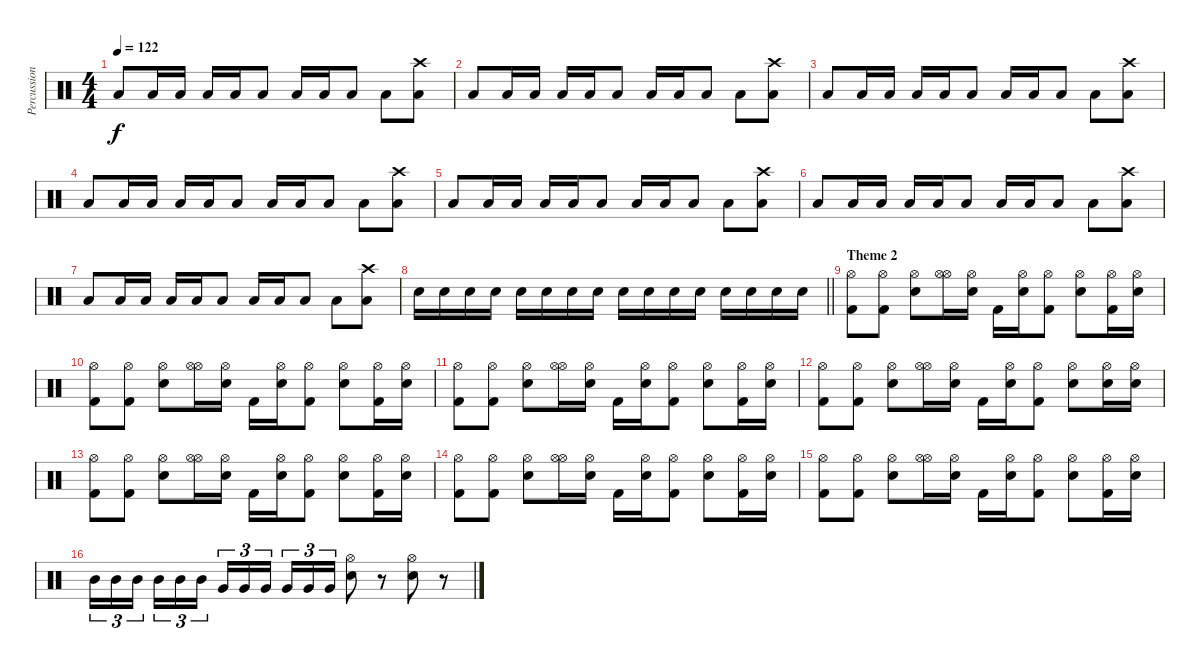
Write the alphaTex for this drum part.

\track ("Percussion" "Percussion") {instrument percussion}
\staff {score}
\articulation defaults
\ts (4 4)
\tempo 122
\clef neutral
\ks c "Low Tom (hit)".8{dy f} "Low Tom (hit)".16 "Low Tom (hit)".16 "Low Tom (hit)".16 "Low Tom (hit)".16 "Low Tom (hit)".8 "Low Tom (hit)".16 "Low Tom (hit)".16 "Low Tom (hit)".8 "Low Tom (hit)".8
("Low Tom (hit)" "Crash high (hit)").8 |
"Low Tom (hit)".8 "Low Tom (hit)".16 "Low Tom (hit)".16 "Low Tom (hit)".16 "Low Tom (hit)".16 "Low Tom (hit)".8 "Low Tom (hit)".16 "Low Tom (hit)".16 "Low Tom (hit)".8 "Low Tom (hit)".8 ("Low Tom (hit)" "Crash high (hit)").8 |
"Low Tom (hit)".8 "Low Tom (hit)".16 "Low Tom (hit)".16 "Low Tom (hit)".16 "Low Tom (hit)".16 "Low Tom (hit)".8 "Low Tom (hit)".16 "Low Tom (hit)".16 "Low Tom (hit)".8 "Low Tom (hit)".8 ("Low Tom (hit)" "Crash high (hit)").8 |
"Low Tom (hit)".8 "Low Tom (hit)".16 "Low Tom (hit)".16 "Low Tom (hit)".16 "Low Tom (hit)".16 "Low Tom (hit)".8 "Low Tom (hit)".16 "Low Tom (hit)".16 "Low Tom (hit)".8 "Low Tom (hit)".8 ("Low Tom (hit)" "Crash high (hit)").8 |
"Low Tom (hit)".8 "Low Tom (hit)".16 "Low Tom (hit)".16 "Low Tom (hit)".16 "Low Tom (hit)".16 "Low Tom (hit)".8 "Low Tom (hit)".16 "Low Tom (hit)".16 "Low Tom (hit)".8 "Low Tom (hit)".8 ("Low Tom (hit)" "Crash high (hit)").8 |
"Low Tom (hit)".8 "Low Tom (hit)".16 "Low Tom (hit)".16 "Low Tom (hit)".16 "Low Tom (hit)".16 "Low Tom (hit)".8 "Low Tom (hit)".16 "Low Tom (hit)".16 "Low Tom (hit)".8 "Low Tom (hit)".8 ("Low Tom (hit)" "Crash high (hit)").8 |
"Low Tom (hit)".8 "Low Tom (hit)".16 "Low Tom (hit)".16 "Low Tom (hit)".16 "Low Tom (hit)".16 "Low Tom (hit)".8 "Low Tom (hit)".16 "Low Tom (hit)".16 "Low Tom (hit)".8 "Low Tom (hit)".8 ("Low Tom (hit)" "Crash high (hit)").8 |
\barLineRight lightlight "Electric Snare (hit)".16 "Electric Snare (hit)".16 "Electric Snare (hit)".16 "Electric Snare (hit)".16 "Electric Snare (hit)".16 "Electric Snare (hit)".16 "Electric Snare (hit)".16 "Electric Snare (hit)".16 "Electric Snare (hit)".16 "Electric Snare (hit)".16 "Electric Snare (hit)".16 "Electric Snare (hit)".16 "Electric Snare (hit)".16 "Electric Snare (hit)".16 "Electric Snare (hit)".16 "Electric Snare (hit)".16
|
\section ("" "Theme 2")
("Hi-Hat (open)" "Kick (hit) 2").8 ("Hi-Hat (open)" "Kick (hit) 2").8 ("Hi-Hat (open)" "Electric Snare (hit)").8 ("Hi-Hat (open)" "Hi-Hat (open)").16 ("Hi-Hat (open)" "Electric Snare (hit)").16 "Kick (hit) 2".16 ("Hi-Hat (open)" "Electric Snare (hit)").16 ("Hi-Hat (open)" "Kick (hit) 2").8 ("Hi-Hat (open)" "Electric Snare (hit)").8 ("Hi-Hat (open)" "Kick (hit) 2").16 ("Hi-Hat (open)" "Electric Snare (hit)").16 |
("Hi-Hat (open)" "Kick (hit) 2").8 ("Hi-Hat (open)" "Kick (hit) 2").8 ("Hi-Hat (open)" "Electric Snare (hit)").8 ("Hi-Hat (open)" "Hi-Hat (open)").16 ("Hi-Hat (open)" "Electric Snare (hit)").16 "Kick (hit) 2".16 ("Hi-Hat (open)" "Electric Snare (hit)").16 ("Hi-Hat (open)" "Kick (hit) 2").8 ("Hi-Hat (open)" "Electric Snare (hit)").8 ("Hi-Hat (open)" "Kick (hit) 2").16 ("Hi-Hat (open)" "Electric Snare (hit)").16 |
("Hi-Hat (open)" "Kick (hit) 2").8 ("Hi-Hat (open)" "Kick (hit) 2").8 ("Hi-Hat (open)" "Electric Snare (hit)").8 ("Hi-Hat (open)" "Hi-Hat (open)").16 ("Hi-Hat (open)" "Electric Snare (hit)").16 "Kick (hit) 2".16 ("Hi-Hat (open)" "Electric Snare (hit)").16 ("Hi-Hat (open)" "Kick (hit) 2").8 ("Hi-Hat (open)" "Electric Snare (hit)").8 ("Hi-Hat (open)" "Kick (hit) 2").16 ("Hi-Hat (open)" "Electric Snare (hit)").16 |
("Hi-Hat (open)" "Kick (hit) 2").8 ("Hi-Hat (open)" "Kick (hit) 2").8 ("Hi-Hat (open)" "Electric Snare (hit)").8 ("Hi-Hat (open)" "Hi-Hat (open)").16 ("Hi-Hat (open)" "Electric Snare (hit)").16 "Kick (hit) 2".16 ("Hi-Hat (open)" "Electric Snare (hit)").16 ("Hi-Hat (open)" "Kick (hit) 2").8 ("Hi-Hat (open)" "Electric Snare (hit)").8 ("Hi-Hat (open)" "Electric Snare (hit)").16 ("Hi-Hat (open)" "Electric Snare (hit)").16 |
("Hi-Hat (open)" "Kick (hit) 2").8 ("Hi-Hat (open)" "Kick (hit) 2").8 ("Hi-Hat (open)" "Electric Snare (hit)").8 ("Hi-Hat (open)" "Hi-Hat (open)").16 ("Hi-Hat (open)" "Electric Snare (hit)").16 "Kick (hit) 2".16 ("Hi-Hat (open)" "Electric Snare (hit)").16 ("Hi-Hat (open)" "Kick (hit) 2").8 ("Hi-Hat (open)" "Electric Snare (hit)").8 ("Hi-Hat (open)" "Kick (hit) 2").16 ("Hi-Hat (open)" "Electric Snare (hit)").16 |
("Hi-Hat (open)" "Kick (hit) 2").8 ("Hi-Hat (open)" "Kick (hit) 2").8 ("Hi-Hat (open)" "Electric Snare (hit)").8 ("Hi-Hat (open)" "Hi-Hat (open)").16 ("Hi-Hat (open)" "Electric Snare (hit)").16 "Kick (hit) 2".16 ("Hi-Hat (open)" "Electric Snare (hit)").16 ("Hi-Hat (open)" "Kick (hit) 2").8 ("Hi-Hat (open)" "Electric Snare (hit)").8 ("Hi-Hat (open)" "Kick (hit) 2").16 ("Hi-Hat (open)" "Electric Snare (hit)").16 |
("Hi-Hat (open)" "Kick (hit) 2").8 ("Hi-Hat (open)" "Kick (hit) 2").8 ("Hi-Hat (open)" "Electric Snare (hit)").8 ("Hi-Hat (open)" "Hi-Hat (open)").16 ("Hi-Hat (open)" "Electric Snare (hit)").16 "Kick (hit) 2".16 ("Hi-Hat (open)" "Electric Snare (hit)").16 ("Hi-Hat (open)" "Kick (hit) 2").8 ("Hi-Hat (open)" "Electric Snare (hit)").8 ("Hi-Hat (open)" "Kick (hit) 2").16 ("Hi-Hat (open)" "Electric Snare (hit)").16 |
"Mid Tom (hit)".16{tu (3 2)} "Mid Tom (hit)".16{tu (3 2)} "Mid Tom (hit)".16{tu (3 2) beam splitsecondary} "Mid Tom (hit)".16{tu (3 2)} "Mid Tom (hit)".16{tu (3 2)} "Mid Tom (hit)".16{tu (3 2)} "Very Low Tom (hit)".16{tu (3 2)} "Very Low Tom (hit)".16{tu (3 2)} "Very Low Tom (hit)".16{tu (3 2) beam splitsecondary} "Very Low Tom (hit)".16{tu (3 2)} "Very Low Tom (hit)".16{tu (3 2)} "Very Low Tom (hit)".16{tu (3 2)} ("Hi-Hat (open)" "Electric Snare (hit)").8 r.8 ("Hi-Hat (open)" "Electric Snare (hit)").8 r.8
